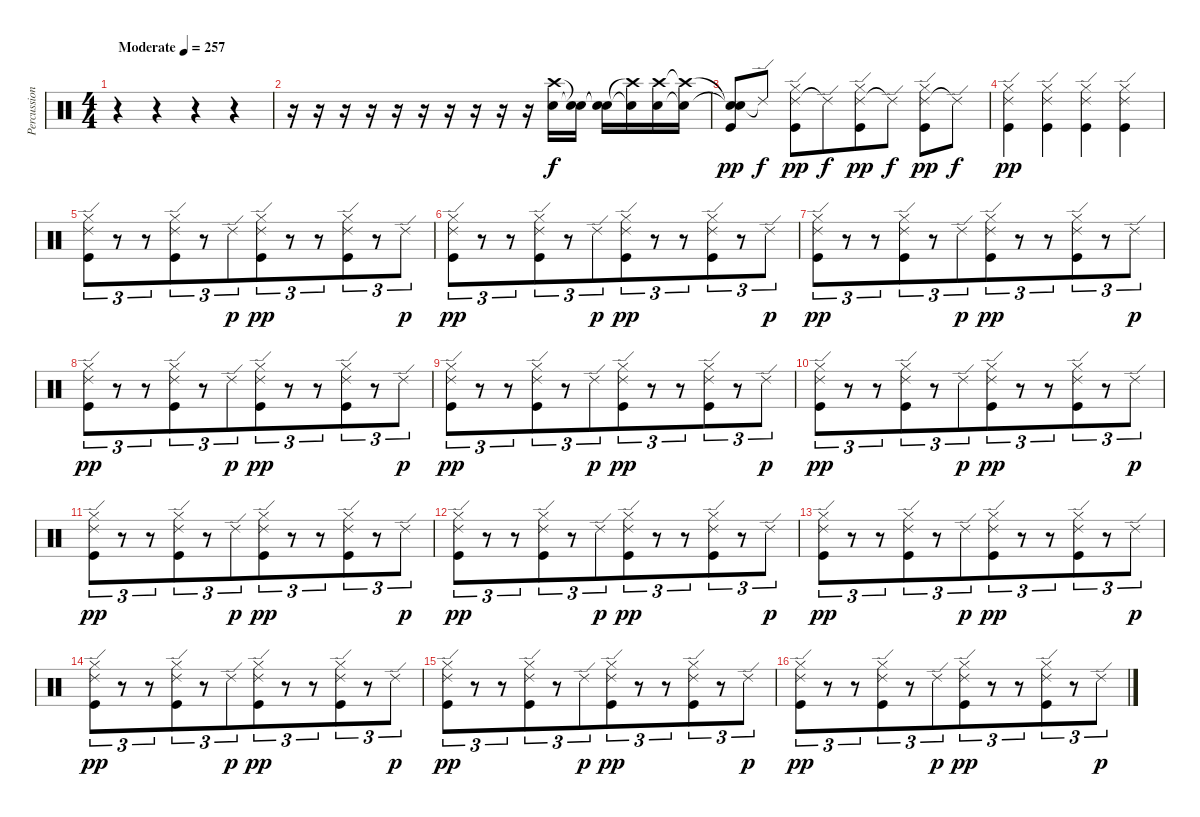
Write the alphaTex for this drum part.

\track ("Percussion" "Percussion") {instrument percussion}
\staff {score}
\articulation defaults
\ts (4 4)
\tempo (257 "Moderate")
\clef neutral
\ks c
r.4{dy f} r.4 r.4{beam merge} r.4 |
r.16 r.16 r.16 r.16{beam merge} r.16{beam merge} r.16{beam merge} r.16 r.16 r.16{beam merge} r.16 ("Crash high (hit)" "Electric Snare (hit)").16 ("Snare (hit)"{t} "Snare (hit)"{t}).16 ("Snare (hit)"{t} "Snare (hit)"{t}).16 ("Crash high (hit)"{t} "Electric Snare (hit)"{t}).16{beam merge} ("Crash high (hit)" "Electric Snare (hit)").16 ("Crash high (hit)"{t} "Electric Snare (hit)"{t}).16 |
("Snare (hit)"{t} "Snare (hit)"{t} "Kick (hit)").8{dy pp} "Ride (edge) 2"{t}.8{dy f} ("Ride (edge) 2" "Hi-Hat (closed)" "Kick (hit)").8{dy pp} "Ride (edge) 2"{t}.8{dy f beam merge} ("Ride (edge) 2" "Hi-Hat (closed)" "Kick (hit)").8{dy pp beam merge} "Ride (edge) 2"{t}.8{dy f} ("Ride (edge) 2" "Hi-Hat (closed)" "Kick (hit)").8{dy pp} "Ride (edge) 2"{t}.8{dy f} |
("Ride (edge) 2" "Hi-Hat (closed)" "Kick (hit)").4{dy pp} ("Ride (edge) 2" "Hi-Hat (closed)" "Kick (hit)").4{beam merge} ("Ride (edge) 2" "Hi-Hat (closed)" "Kick (hit)").4{beam merge} ("Ride (edge) 2" "Hi-Hat (closed)" "Kick (hit)").4 |
("Ride (edge) 2" "Hi-Hat (closed)" "Kick (hit)").8{tu (3 2) beam merge} r.8{tu (3 2) beam merge} r.8{tu (3 2)} ("Ride (edge) 2" "Hi-Hat (closed)" "Kick (hit)").8{tu (3 2)} r.8{tu (3 2)} "Ride (edge) 2".8{tu (3 2) dy p beam merge} ("Ride (edge) 2" "Hi-Hat (closed)" "Kick (hit)").8{tu (3 2) dy pp beam merge} r.8{tu (3 2) beam merge} r.8{tu (3 2)} ("Ride (edge) 2" "Hi-Hat (closed)" "Kick (hit)").8{tu (3 2)} r.8{tu (3 2)} "Ride (edge) 2".8{tu (3 2) dy p} |
("Ride (edge) 2" "Hi-Hat (closed)" "Kick (hit)").8{tu (3 2) dy pp beam merge} r.8{tu (3 2) beam merge} r.8{tu (3 2)} ("Ride (edge) 2" "Hi-Hat (closed)" "Kick (hit)").8{tu (3 2)} r.8{tu (3 2)} "Ride (edge) 2".8{tu (3 2) dy p beam merge} ("Ride (edge) 2" "Hi-Hat (closed)" "Kick (hit)").8{tu (3 2) dy pp beam merge} r.8{tu (3 2) beam merge} r.8{tu (3 2)} ("Ride (edge) 2" "Hi-Hat (closed)" "Kick (hit)").8{tu (3 2)} r.8{tu (3 2)} "Ride (edge) 2".8{tu (3 2) dy p} |
("Ride (edge) 2" "Hi-Hat (closed)" "Kick (hit)").8{tu (3 2) dy pp beam merge} r.8{tu (3 2) beam merge} r.8{tu (3 2)} ("Ride (edge) 2" "Hi-Hat (closed)" "Kick (hit)").8{tu (3 2)} r.8{tu (3 2)} "Ride (edge) 2".8{tu (3 2) dy p beam merge} ("Ride (edge) 2" "Hi-Hat (closed)" "Kick (hit)").8{tu (3 2) dy pp beam merge} r.8{tu (3 2) beam merge} r.8{tu (3 2)} ("Ride (edge) 2" "Hi-Hat (closed)" "Kick (hit)").8{tu (3 2)} r.8{tu (3 2)} "Ride (edge) 2".8{tu (3 2) dy p} |
("Ride (edge) 2" "Hi-Hat (closed)" "Kick (hit)").8{tu (3 2) dy pp beam merge} r.8{tu (3 2) beam merge} r.8{tu (3 2)} ("Ride (edge) 2" "Hi-Hat (closed)" "Kick (hit)").8{tu (3 2)} r.8{tu (3 2)} "Ride (edge) 2".8{tu (3 2) dy p beam merge} ("Ride (edge) 2" "Hi-Hat (closed)" "Kick (hit)").8{tu (3 2) dy pp beam merge} r.8{tu (3 2) beam merge} r.8{tu (3 2)} ("Ride (edge) 2" "Hi-Hat (closed)" "Kick (hit)").8{tu (3 2)} r.8{tu (3 2)} "Ride (edge) 2".8{tu (3 2) dy p} |
("Ride (edge) 2" "Hi-Hat (closed)" "Kick (hit)").8{tu (3 2) dy pp beam merge} r.8{tu (3 2) beam merge} r.8{tu (3 2)} ("Ride (edge) 2" "Hi-Hat (closed)" "Kick (hit)").8{tu (3 2)} r.8{tu (3 2)} "Ride (edge) 2".8{tu (3 2) dy p beam merge} ("Ride (edge) 2" "Hi-Hat (closed)" "Kick (hit)").8{tu (3 2) dy pp beam merge} r.8{tu (3 2) beam merge} r.8{tu (3 2)} ("Ride (edge) 2" "Hi-Hat (closed)" "Kick (hit)").8{tu (3 2)} r.8{tu (3 2)} "Ride (edge) 2".8{tu (3 2) dy p} |
("Ride (edge) 2" "Hi-Hat (closed)" "Kick (hit)").8{tu (3 2) dy pp beam merge} r.8{tu (3 2) beam merge} r.8{tu (3 2)} ("Ride (edge) 2" "Hi-Hat (closed)" "Kick (hit)").8{tu (3 2)} r.8{tu (3 2)} "Ride (edge) 2".8{tu (3 2) dy p beam merge} ("Ride (edge) 2" "Hi-Hat (closed)" "Kick (hit)").8{tu (3 2) dy pp beam merge} r.8{tu (3 2) beam merge} r.8{tu (3 2)} ("Ride (edge) 2" "Hi-Hat (closed)" "Kick (hit)").8{tu (3 2)} r.8{tu (3 2)} "Ride (edge) 2".8{tu (3 2) dy p} |
("Ride (edge) 2" "Hi-Hat (closed)" "Kick (hit)").8{tu (3 2) dy pp beam merge} r.8{tu (3 2) beam merge} r.8{tu (3 2)} ("Ride (edge) 2" "Hi-Hat (closed)" "Kick (hit)").8{tu (3 2)} r.8{tu (3 2)} "Ride (edge) 2".8{tu (3 2) dy p beam merge} ("Ride (edge) 2" "Hi-Hat (closed)" "Kick (hit)").8{tu (3 2) dy pp beam merge} r.8{tu (3 2) beam merge} r.8{tu (3 2)} ("Ride (edge) 2" "Hi-Hat (closed)" "Kick (hit)").8{tu (3 2)} r.8{tu (3 2)} "Ride (edge) 2".8{tu (3 2) dy p} |
("Ride (edge) 2" "Hi-Hat (closed)" "Kick (hit)").8{tu (3 2) dy pp beam merge} r.8{tu (3 2) beam merge} r.8{tu (3 2)} ("Ride (edge) 2" "Hi-Hat (closed)" "Kick (hit)").8{tu (3 2)} r.8{tu (3 2)} "Ride (edge) 2".8{tu (3 2) dy p beam merge} ("Ride (edge) 2" "Hi-Hat (closed)" "Kick (hit)").8{tu (3 2) dy pp beam merge} r.8{tu (3 2) beam merge} r.8{tu (3 2)} ("Ride (edge) 2" "Hi-Hat (closed)" "Kick (hit)").8{tu (3 2)} r.8{tu (3 2)} "Ride (edge) 2".8{tu (3 2) dy p} |
("Ride (edge) 2" "Hi-Hat (closed)" "Kick (hit)").8{tu (3 2) dy pp beam merge} r.8{tu (3 2) beam merge} r.8{tu (3 2)} ("Ride (edge) 2" "Hi-Hat (closed)" "Kick (hit)").8{tu (3 2)} r.8{tu (3 2)} "Ride (edge) 2".8{tu (3 2) dy p beam merge} ("Ride (edge) 2" "Hi-Hat (closed)" "Kick (hit)").8{tu (3 2) dy pp beam merge} r.8{tu (3 2) beam merge} r.8{tu (3 2)} ("Ride (edge) 2" "Hi-Hat (closed)" "Kick (hit)").8{tu (3 2)} r.8{tu (3 2)} "Ride (edge) 2".8{tu (3 2) dy p} |
("Ride (edge) 2" "Hi-Hat (closed)" "Kick (hit)").8{tu (3 2) dy pp beam merge} r.8{tu (3 2) beam merge} r.8{tu (3 2)} ("Ride (edge) 2" "Hi-Hat (closed)" "Kick (hit)").8{tu (3 2)} r.8{tu (3 2)} "Ride (edge) 2".8{tu (3 2) dy p beam merge} ("Ride (edge) 2" "Hi-Hat (closed)" "Kick (hit)").8{tu (3 2) dy pp beam merge} r.8{tu (3 2) beam merge} r.8{tu (3 2)} ("Ride (edge) 2" "Hi-Hat (closed)" "Kick (hit)").8{tu (3 2)} r.8{tu (3 2)} "Ride (edge) 2".8{tu (3 2) dy p} |
("Ride (edge) 2" "Hi-Hat (closed)" "Kick (hit)").8{tu (3 2) dy pp beam merge} r.8{tu (3 2) beam merge} r.8{tu (3 2)} ("Ride (edge) 2" "Hi-Hat (closed)" "Kick (hit)").8{tu (3 2)} r.8{tu (3 2)} "Ride (edge) 2".8{tu (3 2) dy p beam merge} ("Ride (edge) 2" "Hi-Hat (closed)" "Kick (hit)").8{tu (3 2) dy pp beam merge} r.8{tu (3 2) beam merge} r.8{tu (3 2)} ("Ride (edge) 2" "Hi-Hat (closed)" "Kick (hit)").8{tu (3 2)} r.8{tu (3 2)} "Ride (edge) 2".8{tu (3 2) dy p} |
("Ride (edge) 2" "Hi-Hat (closed)" "Kick (hit)").8{tu (3 2) dy pp beam merge} r.8{tu (3 2) beam merge} r.8{tu (3 2)} ("Ride (edge) 2" "Hi-Hat (closed)" "Kick (hit)").8{tu (3 2)} r.8{tu (3 2)} "Ride (edge) 2".8{tu (3 2) dy p beam merge} ("Ride (edge) 2" "Hi-Hat (closed)" "Kick (hit)").8{tu (3 2) dy pp beam merge} r.8{tu (3 2) beam merge} r.8{tu (3 2)} ("Ride (edge) 2" "Hi-Hat (closed)" "Kick (hit)").8{tu (3 2)} r.8{tu (3 2)} "Ride (edge) 2".8{tu (3 2) dy p}
